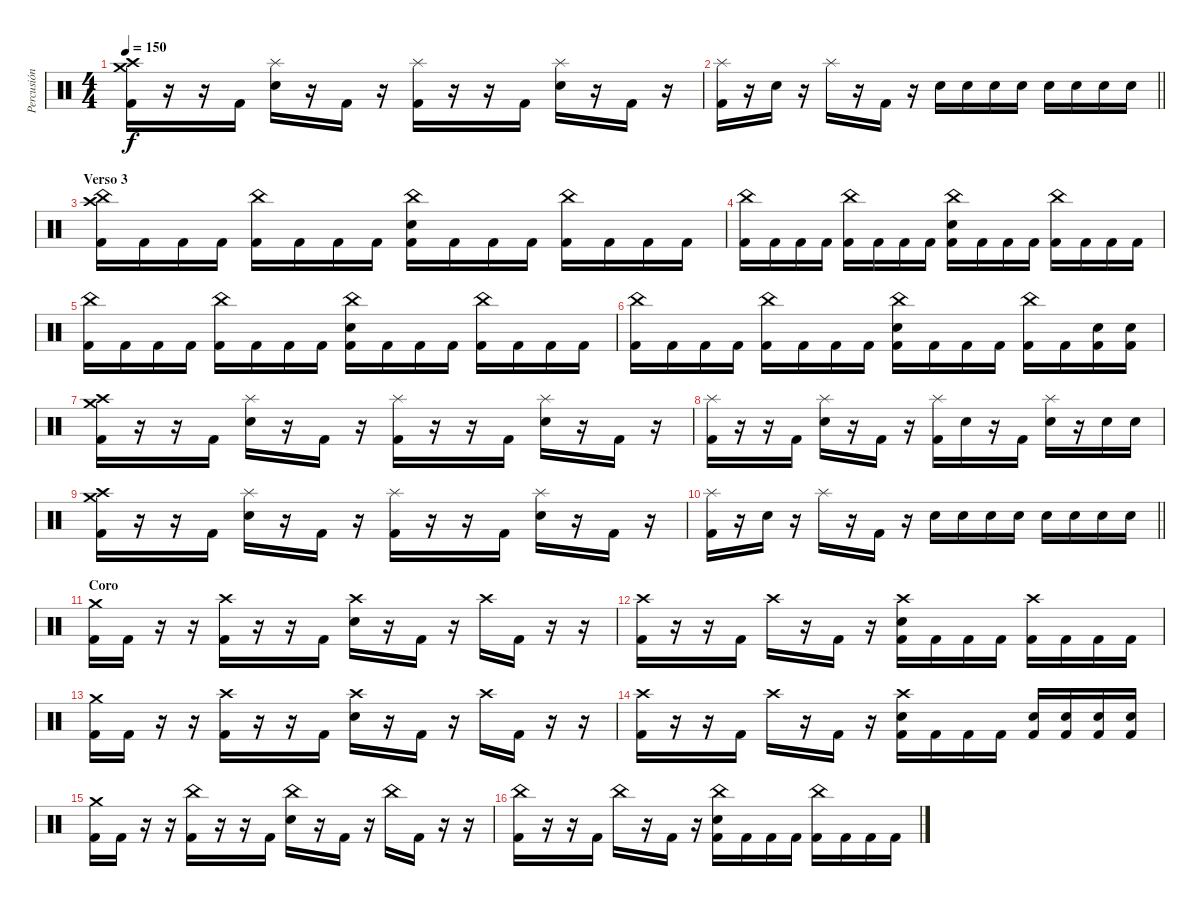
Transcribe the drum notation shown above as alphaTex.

\track ("Percusión" "Percusión") {instrument percussion}
\staff {score}
\articulation defaults
\ts (4 4)
\tempo 150
\clef neutral
\ks c
("Crash medium (hit)" "Crash high (hit)" "Kick (hit) 2").16{dy f} r.16 r.16 "Kick (hit) 2".16 ("Splash (hit)" "Electric Snare (hit)").16 r.16 "Kick (hit) 2".16 r.16 ("Splash (hit)" "Kick (hit) 2").16 r.16 r.16 "Kick (hit) 2".16 ("Splash (hit)" "Electric Snare (hit)").16 r.16 "Kick (hit) 2".16 r.16 |
\barLineRight lightlight
("Splash (hit)" "Kick (hit) 2").16 r.16 "Electric Snare (hit)".16 r.16 "Splash (hit)".16 r.16 "Kick (hit) 2".16 r.16 "Electric Snare (hit)".16 "Electric Snare (hit)".16 "Electric Snare (hit)".16 "Electric Snare (hit)".16 "Electric Snare (hit)".16 "Electric Snare (hit)".16 "Electric Snare (hit)".16 "Electric Snare (hit)".16 |
\section ("" "Verso 3")
("China (hit)" "Crash high (hit)" "Kick (hit) 2").16 "Kick (hit) 2".16 "Kick (hit) 2".16 "Kick (hit) 2".16 ("China (hit)" "Kick (hit) 2").16 "Kick (hit) 2".16 "Kick (hit) 2".16 "Kick (hit) 2".16 ("China (hit)" "Electric Snare (hit)" "Kick (hit) 2").16 "Kick (hit) 2".16 "Kick (hit) 2".16 "Kick (hit) 2".16 ("China (hit)" "Kick (hit) 2").16 "Kick (hit) 2".16 "Kick (hit) 2".16 "Kick (hit) 2".16 |
("China (hit)" "Kick (hit) 2").16 "Kick (hit) 2".16 "Kick (hit) 2".16 "Kick (hit) 2".16 ("China (hit)" "Kick (hit) 2").16 "Kick (hit) 2".16 "Kick (hit) 2".16 "Kick (hit) 2".16 ("China (hit)" "Electric Snare (hit)" "Kick (hit) 2").16 "Kick (hit) 2".16 "Kick (hit) 2".16 "Kick (hit) 2".16 ("China (hit)" "Kick (hit) 2").16 "Kick (hit) 2".16 "Kick (hit) 2".16 "Kick (hit) 2".16 |
("China (hit)" "Kick (hit) 2").16 "Kick (hit) 2".16 "Kick (hit) 2".16 "Kick (hit) 2".16 ("China (hit)" "Kick (hit) 2").16 "Kick (hit) 2".16 "Kick (hit) 2".16 "Kick (hit) 2".16 ("China (hit)" "Electric Snare (hit)" "Kick (hit) 2").16 "Kick (hit) 2".16 "Kick (hit) 2".16 "Kick (hit) 2".16 ("China (hit)" "Kick (hit) 2").16 "Kick (hit) 2".16 "Kick (hit) 2".16 "Kick (hit) 2".16 |
("China (hit)" "Kick (hit) 2").16 "Kick (hit) 2".16 "Kick (hit) 2".16 "Kick (hit) 2".16 ("China (hit)" "Kick (hit) 2").16 "Kick (hit) 2".16 "Kick (hit) 2".16 "Kick (hit) 2".16 ("China (hit)" "Electric Snare (hit)" "Kick (hit) 2").16 "Kick (hit) 2".16 "Kick (hit) 2".16 "Kick (hit) 2".16 ("China (hit)" "Kick (hit) 2").16 "Kick (hit) 2".16 ("Electric Snare (hit)" "Kick (hit) 2").16 ("Electric Snare (hit)" "Kick (hit) 2").16 |
("Crash medium (hit)" "Crash high (hit)" "Kick (hit) 2").16 r.16 r.16 "Kick (hit) 2".16 ("Splash (hit)" "Electric Snare (hit)").16 r.16 "Kick (hit) 2".16 r.16 ("Splash (hit)" "Kick (hit) 2").16 r.16 r.16 "Kick (hit) 2".16 ("Splash (hit)" "Electric Snare (hit)").16 r.16 "Kick (hit) 2".16 r.16 |
("Splash (hit)" "Kick (hit) 2").16 r.16 r.16 "Kick (hit) 2".16 ("Splash (hit)" "Electric Snare (hit)").16 r.16 "Kick (hit) 2".16 r.16 ("Splash (hit)" "Kick (hit) 2").16 "Electric Snare (hit)".16 r.16 "Kick (hit) 2".16 ("Splash (hit)" "Electric Snare (hit)").16 r.16 "Electric Snare (hit)".16 "Electric Snare (hit)".16 |
("Crash medium (hit)" "Crash high (hit)" "Kick (hit) 2").16 r.16 r.16 "Kick (hit) 2".16 ("Splash (hit)" "Electric Snare (hit)").16 r.16 "Kick (hit) 2".16 r.16 ("Splash (hit)" "Kick (hit) 2").16 r.16 r.16 "Kick (hit) 2".16 ("Splash (hit)" "Electric Snare (hit)").16 r.16 "Kick (hit) 2".16 r.16 |
\barLineRight lightlight
("Splash (hit)" "Kick (hit) 2").16 r.16 "Electric Snare (hit)".16 r.16 "Splash (hit)".16 r.16 "Kick (hit) 2".16 r.16 "Electric Snare (hit)".16 "Electric Snare (hit)".16 "Electric Snare (hit)".16 "Electric Snare (hit)".16 "Electric Snare (hit)".16 "Electric Snare (hit)".16 "Electric Snare (hit)".16 "Electric Snare (hit)".16 |
\section ("" "Coro")
("Crash medium (hit)" "Kick (hit) 2").16 "Kick (hit) 2".16 r.16 r.16 ("Crash high (hit)" "Kick (hit) 2").16 r.16 r.16 "Kick (hit) 2".16 ("Crash high (hit)" "Electric Snare (hit)").16 r.16 "Kick (hit) 2".16 r.16 "Crash high (hit)".16 "Kick (hit) 2".16 r.16 r.16 |
("Crash high (hit)" "Kick (hit) 2").16 r.16 r.16 "Kick (hit) 2".16 "Crash high (hit)".16 r.16 "Kick (hit) 2".16 r.16 ("Crash high (hit)" "Electric Snare (hit)" "Kick (hit) 2").16 "Kick (hit) 2".16 "Kick (hit) 2".16 "Kick (hit) 2".16 ("Crash high (hit)" "Kick (hit) 2").16 "Kick (hit) 2".16 "Kick (hit) 2".16 "Kick (hit) 2".16 |
("Crash medium (hit)" "Kick (hit) 2").16 "Kick (hit) 2".16 r.16 r.16 ("Crash high (hit)" "Kick (hit) 2").16 r.16 r.16 "Kick (hit) 2".16 ("Crash high (hit)" "Electric Snare (hit)").16 r.16 "Kick (hit) 2".16 r.16 "Crash high (hit)".16 "Kick (hit) 2".16 r.16 r.16 |
("Crash high (hit)" "Kick (hit) 2").16 r.16 r.16 "Kick (hit) 2".16 "Crash high (hit)".16 r.16 "Kick (hit) 2".16 r.16 ("Crash high (hit)" "Electric Snare (hit)" "Kick (hit) 2").16 "Kick (hit) 2".16 "Kick (hit) 2".16 "Kick (hit) 2".16 ("Electric Snare (hit)" "Kick (hit) 2").16 ("Electric Snare (hit)" "Kick (hit) 2").16 ("Electric Snare (hit)" "Kick (hit) 2").16 ("Electric Snare (hit)" "Kick (hit) 2").16 |
("Crash medium (hit)" "Kick (hit) 2").16 "Kick (hit) 2".16 r.16 r.16 ("China (hit)" "Kick (hit) 2").16 r.16 r.16 "Kick (hit) 2".16 ("China (hit)" "Electric Snare (hit)").16 r.16 "Kick (hit) 2".16 r.16 "China (hit)".16 "Kick (hit) 2".16 r.16 r.16 |
("China (hit)" "Kick (hit) 2").16 r.16 r.16 "Kick (hit) 2".16 "China (hit)".16 r.16 "Kick (hit) 2".16 r.16 ("China (hit)" "Electric Snare (hit)" "Kick (hit) 2").16 "Kick (hit) 2".16 "Kick (hit) 2".16 "Kick (hit) 2".16 ("China (hit)" "Kick (hit) 2").16 "Kick (hit) 2".16 "Kick (hit) 2".16 "Kick (hit) 2".16
